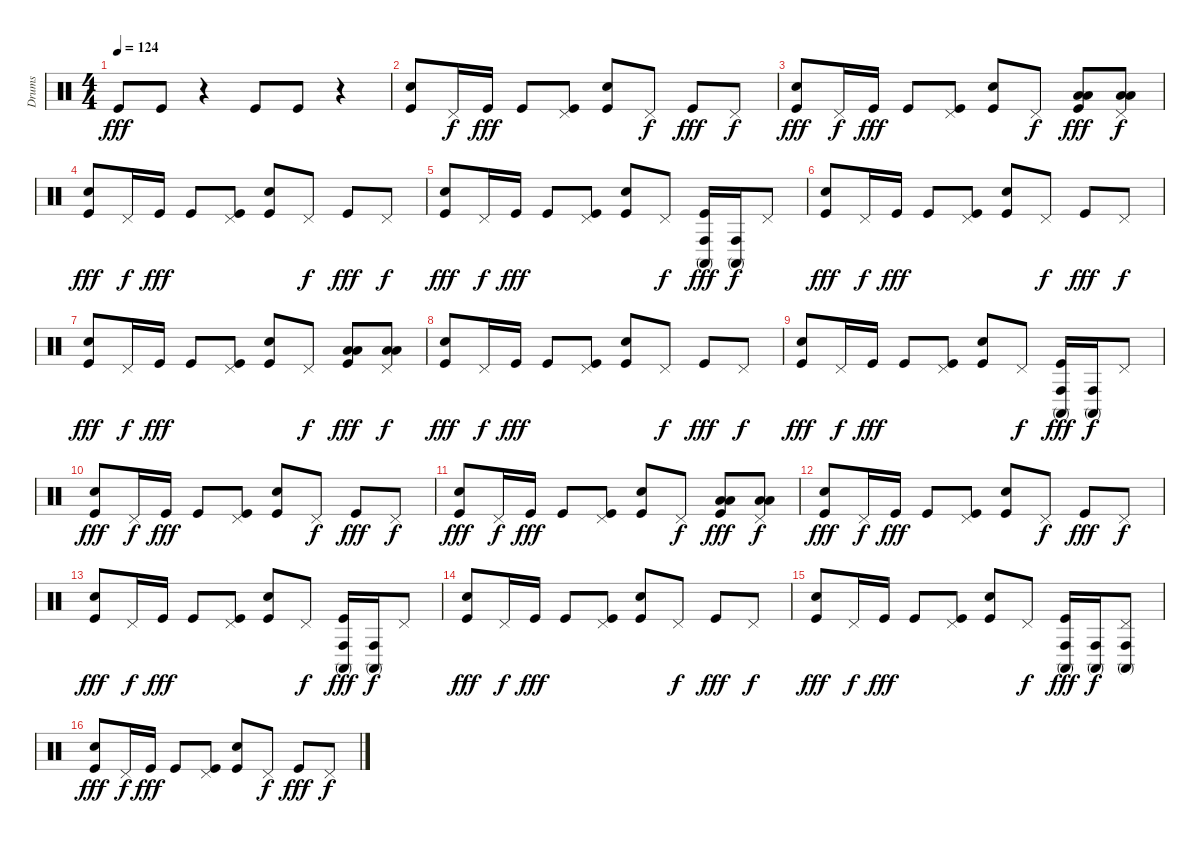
\track ("Drums" "Drums") {instrument percussion}
\staff {score}
\articulation defaults
\ts (4 4)
\tempo 124
\clef neutral
\ks c "Kick (hit)".8{dy fff} "Kick (hit)".8
r.4 "Kick (hit)".8 "Kick (hit)".8 r.4 |
("Kick (hit)" "Electric Snare (hit)").8 "Pedal Hi-Hat (hit)".16{dy f} "Kick (hit)".16{dy fff} "Kick (hit)".8 ("Kick (hit)" "Pedal Hi-Hat (hit)").8 ("Kick (hit)" "Electric Snare (hit)").8 "Pedal Hi-Hat (hit)".8{dy f} "Kick (hit)".8{dy fff} "Pedal Hi-Hat (hit)".8{dy f} |
("Kick (hit)" "Electric Snare (hit)").8{dy fff} "Pedal Hi-Hat (hit)".16{dy f} "Kick (hit)".16{dy fff} "Kick (hit)".8 ("Kick (hit)" "Pedal Hi-Hat (hit)").8 ("Kick (hit)" "Electric Snare (hit)").8 "Pedal Hi-Hat (hit)".8{dy f} ("Kick (hit)" "Low Tom (hit)" "Low Tom (hit)").8{dy fff} ("Pedal Hi-Hat (hit)" "Low Tom (hit)" "Low Tom (hit)").8{dy f} |
("Kick (hit)" "Electric Snare (hit)").8{dy fff} "Pedal Hi-Hat (hit)".16{dy f} "Kick (hit)".16{dy fff} "Kick (hit)".8 ("Kick (hit)" "Pedal Hi-Hat (hit)").8 ("Kick (hit)" "Electric Snare (hit)").8 "Pedal Hi-Hat (hit)".8{dy f} "Kick (hit)".8{dy fff} "Pedal Hi-Hat (hit)".8{dy f} |
("Kick (hit)" "Electric Snare (hit)").8{dy fff} "Pedal Hi-Hat (hit)".16{dy f} "Kick (hit)".16{dy fff} "Kick (hit)".8 ("Kick (hit)" "Pedal Hi-Hat (hit)").8 ("Kick (hit)" "Electric Snare (hit)").8 "Pedal Hi-Hat (hit)".8{dy f} ("Kick (hit)" "Conga high (hit)" "Conga high (mute)").16{dy fff} ("Conga high (mute)" "Conga high (hit)").16{dy f} "Pedal Hi-Hat (hit)".8 |
("Kick (hit)" "Electric Snare (hit)").8{dy fff} "Pedal Hi-Hat (hit)".16{dy f} "Kick (hit)".16{dy fff} "Kick (hit)".8 ("Kick (hit)" "Pedal Hi-Hat (hit)").8 ("Kick (hit)" "Electric Snare (hit)").8 "Pedal Hi-Hat (hit)".8{dy f} "Kick (hit)".8{dy fff} "Pedal Hi-Hat (hit)".8{dy f} |
("Kick (hit)" "Electric Snare (hit)").8{dy fff} "Pedal Hi-Hat (hit)".16{dy f} "Kick (hit)".16{dy fff} "Kick (hit)".8 ("Kick (hit)" "Pedal Hi-Hat (hit)").8 ("Kick (hit)" "Electric Snare (hit)").8 "Pedal Hi-Hat (hit)".8{dy f} ("Kick (hit)" "Low Tom (hit)" "Low Tom (hit)").8{dy fff} ("Pedal Hi-Hat (hit)" "Low Tom (hit)" "Low Tom (hit)").8{dy f} |
("Kick (hit)" "Electric Snare (hit)").8{dy fff} "Pedal Hi-Hat (hit)".16{dy f} "Kick (hit)".16{dy fff} "Kick (hit)".8 ("Kick (hit)" "Pedal Hi-Hat (hit)").8 ("Kick (hit)" "Electric Snare (hit)").8 "Pedal Hi-Hat (hit)".8{dy f} "Kick (hit)".8{dy fff} "Pedal Hi-Hat (hit)".8{dy f} |
("Kick (hit)" "Electric Snare (hit)").8{dy fff} "Pedal Hi-Hat (hit)".16{dy f} "Kick (hit)".16{dy fff} "Kick (hit)".8 ("Kick (hit)" "Pedal Hi-Hat (hit)").8 ("Kick (hit)" "Electric Snare (hit)").8 "Pedal Hi-Hat (hit)".8{dy f} ("Kick (hit)" "Conga high (hit)" "Conga high (mute)").16{dy fff} ("Conga high (mute)" "Conga high (hit)").16{dy f} "Pedal Hi-Hat (hit)".8 |
("Kick (hit)" "Electric Snare (hit)").8{dy fff} "Pedal Hi-Hat (hit)".16{dy f} "Kick (hit)".16{dy fff} "Kick (hit)".8 ("Kick (hit)" "Pedal Hi-Hat (hit)").8 ("Kick (hit)" "Electric Snare (hit)").8 "Pedal Hi-Hat (hit)".8{dy f} "Kick (hit)".8{dy fff} "Pedal Hi-Hat (hit)".8{dy f} |
("Kick (hit)" "Electric Snare (hit)").8{dy fff} "Pedal Hi-Hat (hit)".16{dy f} "Kick (hit)".16{dy fff} "Kick (hit)".8 ("Kick (hit)" "Pedal Hi-Hat (hit)").8 ("Kick (hit)" "Electric Snare (hit)").8 "Pedal Hi-Hat (hit)".8{dy f} ("Kick (hit)" "Low Tom (hit)" "Low Tom (hit)").8{dy fff} ("Pedal Hi-Hat (hit)" "Low Tom (hit)" "Low Tom (hit)").8{dy f} |
("Kick (hit)" "Electric Snare (hit)").8{dy fff} "Pedal Hi-Hat (hit)".16{dy f} "Kick (hit)".16{dy fff} "Kick (hit)".8 ("Kick (hit)" "Pedal Hi-Hat (hit)").8 ("Kick (hit)" "Electric Snare (hit)").8 "Pedal Hi-Hat (hit)".8{dy f} "Kick (hit)".8{dy fff} "Pedal Hi-Hat (hit)".8{dy f} |
("Kick (hit)" "Electric Snare (hit)").8{dy fff} "Pedal Hi-Hat (hit)".16{dy f} "Kick (hit)".16{dy fff} "Kick (hit)".8 ("Kick (hit)" "Pedal Hi-Hat (hit)").8 ("Kick (hit)" "Electric Snare (hit)").8 "Pedal Hi-Hat (hit)".8{dy f} ("Kick (hit)" "Conga high (hit)" "Conga high (mute)").16{dy fff} ("Conga high (mute)" "Conga high (hit)").16{dy f} "Pedal Hi-Hat (hit)".8 |
("Kick (hit)" "Electric Snare (hit)").8{dy fff} "Pedal Hi-Hat (hit)".16{dy f} "Kick (hit)".16{dy fff} "Kick (hit)".8 ("Kick (hit)" "Pedal Hi-Hat (hit)").8 ("Kick (hit)" "Electric Snare (hit)").8 "Pedal Hi-Hat (hit)".8{dy f} "Kick (hit)".8{dy fff} "Pedal Hi-Hat (hit)".8{dy f} |
("Kick (hit)" "Electric Snare (hit)").8{dy fff} "Pedal Hi-Hat (hit)".16{dy f} "Kick (hit)".16{dy fff} "Kick (hit)".8 ("Kick (hit)" "Pedal Hi-Hat (hit)").8 ("Kick (hit)" "Electric Snare (hit)").8 "Pedal Hi-Hat (hit)".8{dy f} ("Kick (hit)" "Conga high (mute)" "Conga high (hit)").16{dy fff} ("Conga high (mute)" "Conga high (hit)").16{dy f} ("Pedal Hi-Hat (hit)" "Conga high (hit)" "Conga high (mute)").8 |
("Kick (hit)" "Electric Snare (hit)").8{dy fff} "Pedal Hi-Hat (hit)".16{dy f} "Kick (hit)".16{dy fff} "Kick (hit)".8 ("Kick (hit)" "Pedal Hi-Hat (hit)").8 ("Kick (hit)" "Electric Snare (hit)").8 "Pedal Hi-Hat (hit)".8{dy f} "Kick (hit)".8{dy fff} "Pedal Hi-Hat (hit)".8{dy f}
